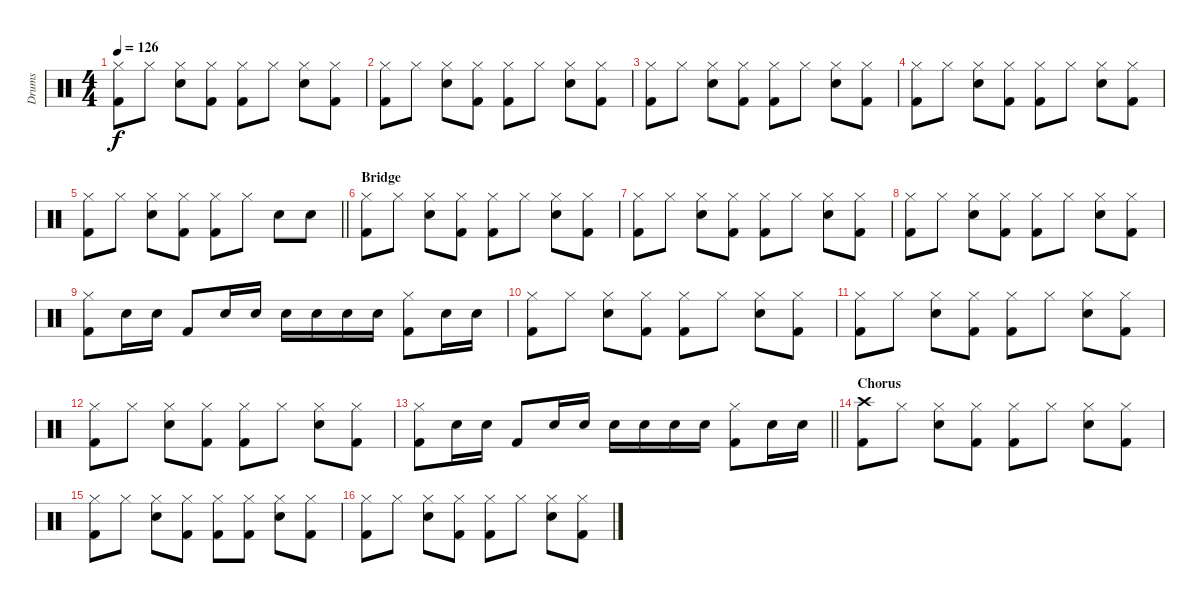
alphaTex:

\track ("Drums" "Drums") {instrument percussion}
\staff {score}
\articulation defaults
\ts (4 4)
\tempo 126
\clef neutral
\ks c
("Hi-Hat (closed)" "Kick (hit) 2").8{dy f} "Hi-Hat (closed)".8 ("Hi-Hat (closed)" "Snare (hit) 2").8 ("Hi-Hat (closed)" "Kick (hit) 2").8 ("Hi-Hat (closed)" "Kick (hit) 2").8 "Hi-Hat (closed)".8 ("Hi-Hat (closed)" "Snare (hit) 2").8 ("Hi-Hat (closed)" "Kick (hit) 2").8 |
("Hi-Hat (closed)" "Kick (hit) 2").8 "Hi-Hat (closed)".8 ("Hi-Hat (closed)" "Snare (hit) 2").8 ("Hi-Hat (closed)" "Kick (hit) 2").8 ("Hi-Hat (closed)" "Kick (hit) 2").8 "Hi-Hat (closed)".8 ("Hi-Hat (closed)" "Snare (hit) 2").8 ("Hi-Hat (closed)" "Kick (hit) 2").8 |
("Hi-Hat (closed)" "Kick (hit) 2").8 "Hi-Hat (closed)".8 ("Hi-Hat (closed)" "Snare (hit) 2").8 ("Hi-Hat (closed)" "Kick (hit) 2").8 ("Hi-Hat (closed)" "Kick (hit) 2").8 "Hi-Hat (closed)".8 ("Hi-Hat (closed)" "Snare (hit) 2").8 ("Hi-Hat (closed)" "Kick (hit) 2").8 |
("Hi-Hat (closed)" "Kick (hit) 2").8 "Hi-Hat (closed)".8 ("Hi-Hat (closed)" "Snare (hit) 2").8 ("Hi-Hat (closed)" "Kick (hit) 2").8 ("Hi-Hat (closed)" "Kick (hit) 2").8 "Hi-Hat (closed)".8 ("Hi-Hat (closed)" "Snare (hit) 2").8 ("Hi-Hat (closed)" "Kick (hit) 2").8 |
\barLineRight lightlight
("Hi-Hat (closed)" "Kick (hit) 2").8 "Hi-Hat (closed)".8 ("Hi-Hat (closed)" "Snare (hit) 2").8 ("Hi-Hat (closed)" "Kick (hit) 2").8 ("Hi-Hat (closed)" "Kick (hit) 2").8 "Hi-Hat (closed)".8 "Snare (hit) 2".8 "Snare (hit) 2".8 |
\section ("" "Bridge")
("Hi-Hat (closed)" "Kick (hit) 2").8 "Hi-Hat (closed)".8 ("Hi-Hat (closed)" "Snare (hit) 2").8 ("Hi-Hat (closed)" "Kick (hit) 2").8 ("Hi-Hat (closed)" "Kick (hit) 2").8 "Hi-Hat (closed)".8 ("Hi-Hat (closed)" "Snare (hit) 2").8 ("Hi-Hat (closed)" "Kick (hit) 2").8 |
("Hi-Hat (closed)" "Kick (hit) 2").8 "Hi-Hat (closed)".8 ("Hi-Hat (closed)" "Snare (hit) 2").8 ("Hi-Hat (closed)" "Kick (hit) 2").8 ("Hi-Hat (closed)" "Kick (hit) 2").8 "Hi-Hat (closed)".8 ("Hi-Hat (closed)" "Snare (hit) 2").8 ("Hi-Hat (closed)" "Kick (hit) 2").8 |
("Hi-Hat (closed)" "Kick (hit) 2").8 "Hi-Hat (closed)".8 ("Hi-Hat (closed)" "Snare (hit) 2").8 ("Hi-Hat (closed)" "Kick (hit) 2").8 ("Hi-Hat (closed)" "Kick (hit) 2").8 "Hi-Hat (closed)".8 ("Hi-Hat (closed)" "Snare (hit) 2").8 ("Hi-Hat (closed)" "Kick (hit) 2").8 |
("Hi-Hat (closed)" "Kick (hit) 2").8 "Snare (hit) 2".16 "Snare (hit) 2".16 "Kick (hit) 2".8 "Snare (hit) 2".16 "Snare (hit) 2".16 "Snare (hit) 2".16 "Snare (hit) 2".16 "Snare (hit) 2".16 "Snare (hit) 2".16 ("Hi-Hat (closed)" "Kick (hit) 2").8 "Snare (hit) 2".16 "Snare (hit) 2".16 |
("Hi-Hat (closed)" "Kick (hit) 2").8 "Hi-Hat (closed)".8 ("Hi-Hat (closed)" "Snare (hit) 2").8 ("Hi-Hat (closed)" "Kick (hit) 2").8 ("Hi-Hat (closed)" "Kick (hit) 2").8 "Hi-Hat (closed)".8 ("Hi-Hat (closed)" "Snare (hit) 2").8 ("Hi-Hat (closed)" "Kick (hit) 2").8 |
("Hi-Hat (closed)" "Kick (hit) 2").8 "Hi-Hat (closed)".8 ("Hi-Hat (closed)" "Snare (hit) 2").8 ("Hi-Hat (closed)" "Kick (hit) 2").8 ("Hi-Hat (closed)" "Kick (hit) 2").8 "Hi-Hat (closed)".8 ("Hi-Hat (closed)" "Snare (hit) 2").8 ("Hi-Hat (closed)" "Kick (hit) 2").8 |
("Hi-Hat (closed)" "Kick (hit) 2").8 "Hi-Hat (closed)".8 ("Hi-Hat (closed)" "Snare (hit) 2").8 ("Hi-Hat (closed)" "Kick (hit) 2").8 ("Hi-Hat (closed)" "Kick (hit) 2").8 "Hi-Hat (closed)".8 ("Hi-Hat (closed)" "Snare (hit) 2").8 ("Hi-Hat (closed)" "Kick (hit) 2").8 |
\barLineRight lightlight
("Hi-Hat (closed)" "Kick (hit) 2").8 "Snare (hit) 2".16 "Snare (hit) 2".16 "Kick (hit) 2".8 "Snare (hit) 2".16 "Snare (hit) 2".16 "Snare (hit) 2".16 "Snare (hit) 2".16 "Snare (hit) 2".16 "Snare (hit) 2".16 ("Hi-Hat (closed)" "Kick (hit) 2").8 "Snare (hit) 2".16 "Snare (hit) 2".16 |
\section ("" "Chorus")
("Crash high (hit)" "Kick (hit) 2").8 "Hi-Hat (closed)".8 ("Hi-Hat (closed)" "Snare (hit) 2").8 ("Hi-Hat (closed)" "Kick (hit) 2").8 ("Hi-Hat (closed)" "Kick (hit) 2").8 "Hi-Hat (closed)".8 ("Hi-Hat (closed)" "Snare (hit) 2").8 ("Hi-Hat (closed)" "Kick (hit) 2").8 |
("Hi-Hat (closed)" "Kick (hit) 2").8 "Hi-Hat (closed)".8 ("Hi-Hat (closed)" "Snare (hit) 2").8 ("Hi-Hat (closed)" "Kick (hit) 2").8 ("Hi-Hat (closed)" "Kick (hit) 2").8 ("Hi-Hat (closed)" "Kick (hit) 2").8 ("Hi-Hat (closed)" "Snare (hit) 2").8 ("Hi-Hat (closed)" "Kick (hit) 2").8 |
("Hi-Hat (closed)" "Kick (hit) 2").8 "Hi-Hat (closed)".8 ("Hi-Hat (closed)" "Snare (hit) 2").8 ("Hi-Hat (closed)" "Kick (hit) 2").8 ("Hi-Hat (closed)" "Kick (hit) 2").8 "Hi-Hat (closed)".8 ("Hi-Hat (closed)" "Snare (hit) 2").8 ("Hi-Hat (closed)" "Kick (hit) 2").8
